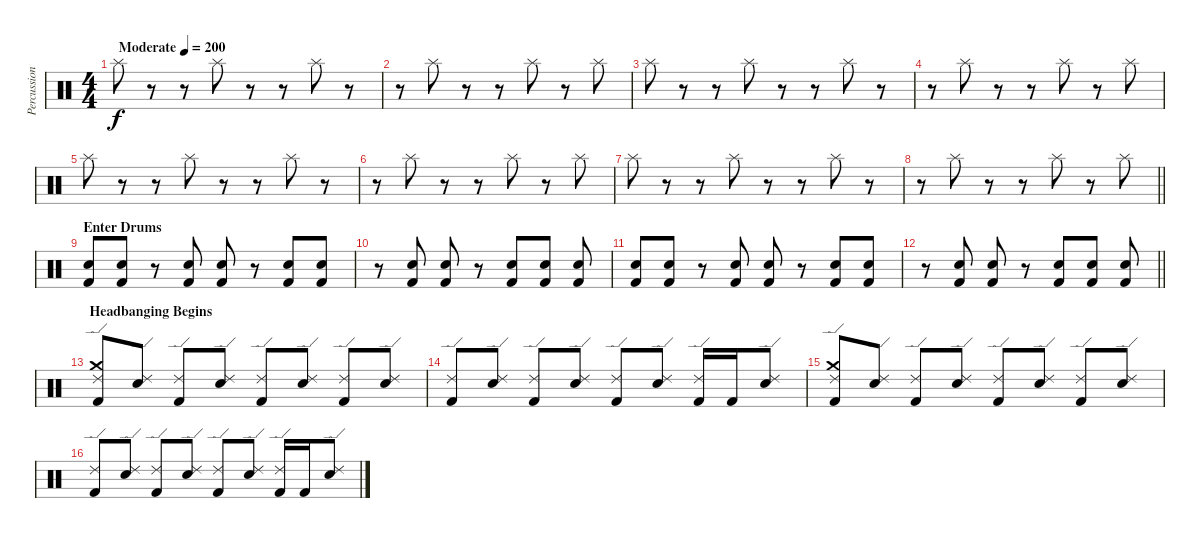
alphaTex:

\track ("Percussion" "Percussion") {instrument percussion}
\staff {score}
\articulation defaults
\ts (4 4)
\tempo (200 "Moderate")
\clef neutral
\ks c "Splash (hit)".8{dy f}
r.8 r.8 "Splash (hit)".8 r.8 r.8 "Splash (hit)".8 r.8 |
r.8 "Splash (hit)".8 r.8 r.8 "Splash (hit)".8 r.8 "Splash (hit)".8 |
"Splash (hit)".8 r.8 r.8 "Splash (hit)".8 r.8 r.8 "Splash (hit)".8 r.8 |
r.8 "Splash (hit)".8 r.8 r.8 "Splash (hit)".8 r.8 "Splash (hit)".8 |
"Splash (hit)".8 r.8 r.8 "Splash (hit)".8 r.8 r.8 "Splash (hit)".8 r.8 |
r.8 "Splash (hit)".8 r.8 r.8 "Splash (hit)".8 r.8 "Splash (hit)".8 |
"Splash (hit)".8 r.8 r.8 "Splash (hit)".8 r.8 r.8 "Splash (hit)".8 r.8 |
\barLineRight lightlight
r.8 "Splash (hit)".8 r.8 r.8 "Splash (hit)".8 r.8 "Splash (hit)".8 |
\section ("" "Enter Drums")
("Electric Snare (hit)" "Kick (hit) 2").8 ("Electric Snare (hit)" "Kick (hit) 2").8 r.8 ("Electric Snare (hit)" "Kick (hit) 2").8 ("Electric Snare (hit)" "Kick (hit) 2").8 r.8 ("Electric Snare (hit)" "Kick (hit) 2").8 ("Electric Snare (hit)" "Kick (hit) 2").8 |
r.8 ("Electric Snare (hit)" "Kick (hit) 2").8 ("Electric Snare (hit)" "Kick (hit) 2").8 r.8 ("Electric Snare (hit)" "Kick (hit) 2").8 ("Electric Snare (hit)" "Kick (hit) 2").8 ("Electric Snare (hit)" "Kick (hit) 2").8 |
("Electric Snare (hit)" "Kick (hit) 2").8 ("Electric Snare (hit)" "Kick (hit) 2").8 r.8 ("Electric Snare (hit)" "Kick (hit) 2").8 ("Electric Snare (hit)" "Kick (hit) 2").8 r.8 ("Electric Snare (hit)" "Kick (hit) 2").8 ("Electric Snare (hit)" "Kick (hit) 2").8 |
\barLineRight lightlight
r.8 ("Electric Snare (hit)" "Kick (hit) 2").8 ("Electric Snare (hit)" "Kick (hit) 2").8 r.8 ("Electric Snare (hit)" "Kick (hit) 2").8 ("Electric Snare (hit)" "Kick (hit) 2").8 ("Electric Snare (hit)" "Kick (hit) 2").8 |
\section ("" "Headbanging Begins")
("Kick (hit) 2" "Crash medium (hit)" "Ride (edge) 2").8 ("Electric Snare (hit)" "Ride (edge) 2").8 ("Kick (hit) 2" "Ride (edge) 2").8 ("Electric Snare (hit)" "Ride (edge) 2").8 ("Kick (hit) 2" "Ride (edge) 2").8 ("Electric Snare (hit)" "Ride (edge) 2").8 ("Kick (hit) 2" "Ride (edge) 2").8 ("Electric Snare (hit)" "Ride (edge) 2").8 |
("Kick (hit) 2" "Ride (edge) 2").8 ("Electric Snare (hit)" "Ride (edge) 2").8 ("Kick (hit) 2" "Ride (edge) 2").8 ("Electric Snare (hit)" "Ride (edge) 2").8 ("Kick (hit) 2" "Ride (edge) 2").8 ("Electric Snare (hit)" "Ride (edge) 2").8 ("Kick (hit) 2" "Ride (edge) 2").16 "Kick (hit) 2".16 ("Electric Snare (hit)" "Ride (edge) 2").8 |
("Kick (hit) 2" "Crash medium (hit)" "Ride (edge) 2").8 ("Electric Snare (hit)" "Ride (edge) 2").8 ("Kick (hit) 2" "Ride (edge) 2").8 ("Electric Snare (hit)" "Ride (edge) 2").8 ("Kick (hit) 2" "Ride (edge) 2").8 ("Electric Snare (hit)" "Ride (edge) 2").8 ("Kick (hit) 2" "Ride (edge) 2").8 ("Electric Snare (hit)" "Ride (edge) 2").8 |
("Kick (hit) 2" "Ride (edge) 2").8 ("Electric Snare (hit)" "Ride (edge) 2").8 ("Kick (hit) 2" "Ride (edge) 2").8 ("Electric Snare (hit)" "Ride (edge) 2").8 ("Kick (hit) 2" "Ride (edge) 2").8 ("Electric Snare (hit)" "Ride (edge) 2").8 ("Kick (hit) 2" "Ride (edge) 2").16 "Kick (hit) 2".16 ("Electric Snare (hit)" "Ride (edge) 2").8
